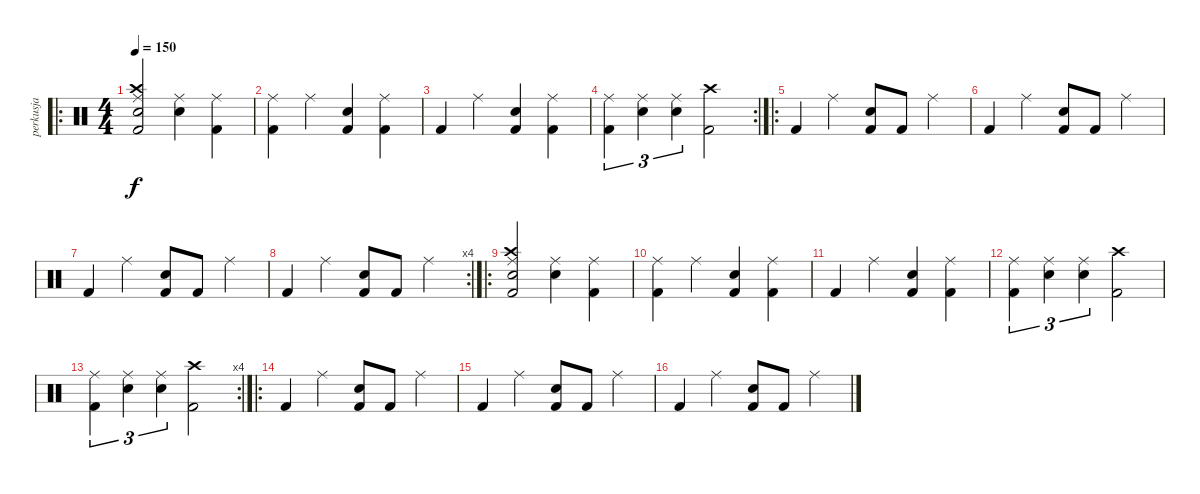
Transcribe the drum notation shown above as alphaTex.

\track ("perkusja" "perkusja") {instrument percussion}
\staff {score}
\articulation defaults
\ro
\ts (4 4)
\tempo 150
\clef neutral
\ks c
("Kick (hit) 2" "Crash high (hit)" "Ride (middle)" "Electric Snare (hit)").2{dy f} ("Electric Snare (hit)" "Ride (middle)").4 ("Ride (middle)" "Kick (hit) 2").4 |
("Kick (hit) 2" "Ride (middle)").4 "Ride (middle)".4 ("Kick (hit) 2" "Electric Snare (hit)").4 ("Kick (hit) 2" "Ride (middle)").4 |
"Kick (hit) 2".4 "Ride (middle)".4 ("Kick (hit) 2" "Electric Snare (hit)").4 ("Kick (hit) 2" "Ride (middle)").4 |
\rc 2
("Kick (hit) 2" "Ride (middle)").4{tu (3 2)} ("Electric Snare (hit)" "Ride (middle)").4{tu (3 2)} ("Electric Snare (hit)" "Ride (middle)").4{tu (3 2)} ("Kick (hit) 2" "Crash high (hit)").2 |
\ro "Kick (hit) 2".4 "Ride (middle)".4
("Electric Snare (hit)" "Kick (hit) 2").8 "Kick (hit) 2".8 "Ride (middle)".4 |
"Kick (hit) 2".4 "Ride (middle)".4 ("Electric Snare (hit)" "Kick (hit) 2").8 "Kick (hit) 2".8 "Ride (middle)".4 |
"Kick (hit) 2".4 "Ride (middle)".4 ("Electric Snare (hit)" "Kick (hit) 2").8 "Kick (hit) 2".8 "Ride (middle)".4 |
\rc 4 "Kick (hit) 2".4 "Ride (middle)".4
("Electric Snare (hit)" "Kick (hit) 2").8 "Kick (hit) 2".8 "Ride (middle)".4 |
\ro
("Kick (hit) 2" "Crash high (hit)" "Ride (middle)" "Electric Snare (hit)").2 ("Electric Snare (hit)" "Ride (middle)").4 ("Ride (middle)" "Kick (hit) 2").4 |
("Kick (hit) 2" "Ride (middle)").4 "Ride (middle)".4 ("Kick (hit) 2" "Electric Snare (hit)").4 ("Kick (hit) 2" "Ride (middle)").4 |
"Kick (hit) 2".4 "Ride (middle)".4 ("Kick (hit) 2" "Electric Snare (hit)").4 ("Kick (hit) 2" "Ride (middle)").4 |
("Kick (hit) 2" "Ride (middle)").4{tu (3 2)} ("Electric Snare (hit)" "Ride (middle)").4{tu (3 2)} ("Electric Snare (hit)" "Ride (middle)").4{tu (3 2)} ("Kick (hit) 2" "Crash high (hit)").2 |
\rc 4
("Kick (hit) 2" "Ride (middle)").4{tu (3 2)} ("Electric Snare (hit)" "Ride (middle)").4{tu (3 2)} ("Electric Snare (hit)" "Ride (middle)").4{tu (3 2)} ("Kick (hit) 2" "Crash high (hit)").2 |
\ro "Kick (hit) 2".4 "Ride (middle)".4
("Electric Snare (hit)" "Kick (hit) 2").8 "Kick (hit) 2".8 "Ride (middle)".4 |
"Kick (hit) 2".4 "Ride (middle)".4 ("Electric Snare (hit)" "Kick (hit) 2").8 "Kick (hit) 2".8 "Ride (middle)".4 |
"Kick (hit) 2".4 "Ride (middle)".4 ("Electric Snare (hit)" "Kick (hit) 2").8 "Kick (hit) 2".8 "Ride (middle)".4
